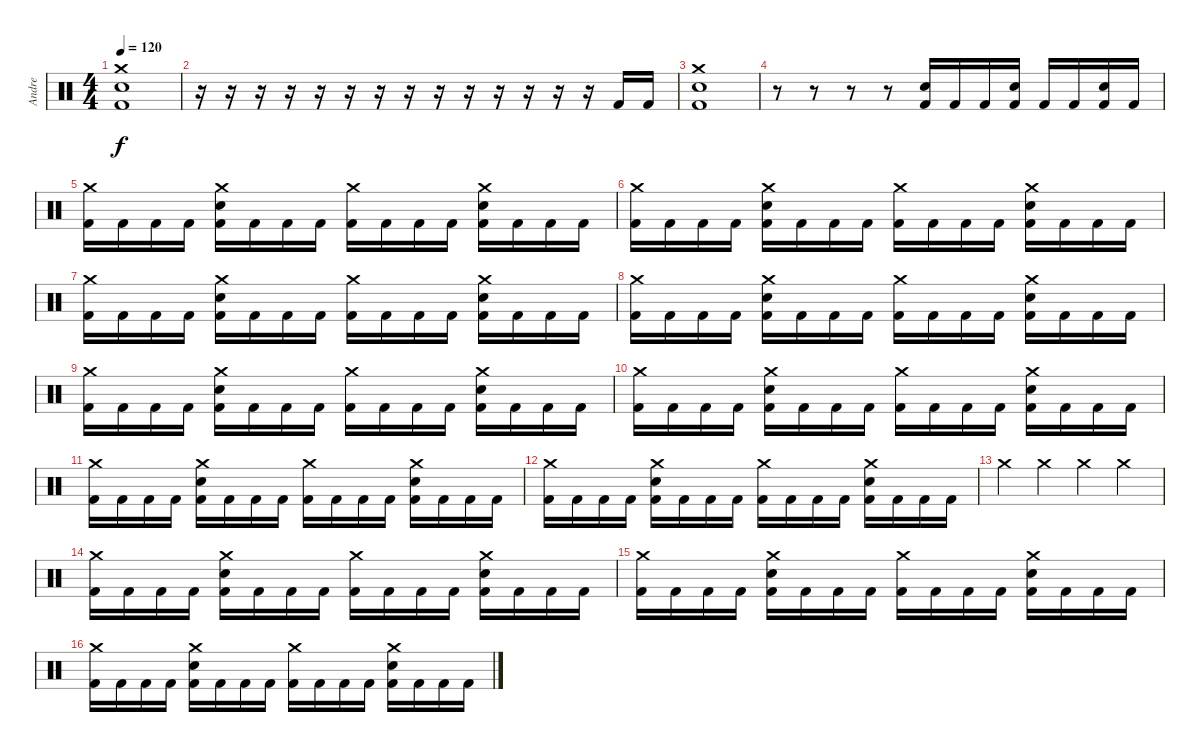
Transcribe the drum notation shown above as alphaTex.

\track ("Andre" "Andre") {instrument percussion}
\staff {score}
\articulation defaults
\ts (4 4)
\tempo 120
\clef neutral
\ks c
("Crash medium (hit)" "Snare (hit) 2" "Kick (hit) 2").1{dy f} |
r.16 r.16 r.16 r.16 r.16 r.16 r.16 r.16 r.16 r.16 r.16 r.16 r.16 r.16 "Kick (hit) 2".16 "Kick (hit) 2".16 |
("Crash medium (hit)" "Snare (hit) 2" "Kick (hit) 2").1 |
r.8 r.8 r.8 r.8 ("Snare (hit) 2" "Kick (hit) 2").16 "Kick (hit) 2".16 "Kick (hit) 2".16 ("Snare (hit) 2" "Kick (hit) 2").16 "Kick (hit) 2".16 "Kick (hit) 2".16 ("Snare (hit) 2" "Kick (hit) 2").16 "Kick (hit) 2".16 |
("Crash medium (hit)" "Kick (hit) 2").16 "Kick (hit) 2".16 "Kick (hit) 2".16 "Kick (hit) 2".16 ("Crash medium (hit)" "Snare (hit) 2" "Kick (hit) 2").16 "Kick (hit) 2".16 "Kick (hit) 2".16 "Kick (hit) 2".16 ("Crash medium (hit)" "Kick (hit) 2").16 "Kick (hit) 2".16 "Kick (hit) 2".16 "Kick (hit) 2".16 ("Crash medium (hit)" "Snare (hit) 2" "Kick (hit) 2").16 "Kick (hit) 2".16 "Kick (hit) 2".16 "Kick (hit) 2".16 |
("Crash medium (hit)" "Kick (hit) 2").16 "Kick (hit) 2".16 "Kick (hit) 2".16 "Kick (hit) 2".16 ("Crash medium (hit)" "Snare (hit) 2" "Kick (hit) 2").16 "Kick (hit) 2".16 "Kick (hit) 2".16 "Kick (hit) 2".16 ("Crash medium (hit)" "Kick (hit) 2").16 "Kick (hit) 2".16 "Kick (hit) 2".16 "Kick (hit) 2".16 ("Crash medium (hit)" "Snare (hit) 2" "Kick (hit) 2").16 "Kick (hit) 2".16 "Kick (hit) 2".16 "Kick (hit) 2".16 |
("Crash medium (hit)" "Kick (hit) 2").16 "Kick (hit) 2".16 "Kick (hit) 2".16 "Kick (hit) 2".16 ("Crash medium (hit)" "Snare (hit) 2" "Kick (hit) 2").16 "Kick (hit) 2".16 "Kick (hit) 2".16 "Kick (hit) 2".16 ("Crash medium (hit)" "Kick (hit) 2").16 "Kick (hit) 2".16 "Kick (hit) 2".16 "Kick (hit) 2".16 ("Crash medium (hit)" "Snare (hit) 2" "Kick (hit) 2").16 "Kick (hit) 2".16 "Kick (hit) 2".16 "Kick (hit) 2".16 |
("Crash medium (hit)" "Kick (hit) 2").16 "Kick (hit) 2".16 "Kick (hit) 2".16 "Kick (hit) 2".16 ("Crash medium (hit)" "Snare (hit) 2" "Kick (hit) 2").16 "Kick (hit) 2".16 "Kick (hit) 2".16 "Kick (hit) 2".16 ("Crash medium (hit)" "Kick (hit) 2").16 "Kick (hit) 2".16 "Kick (hit) 2".16 "Kick (hit) 2".16 ("Crash medium (hit)" "Snare (hit) 2" "Kick (hit) 2").16 "Kick (hit) 2".16 "Kick (hit) 2".16 "Kick (hit) 2".16 |
("Crash medium (hit)" "Kick (hit) 2").16 "Kick (hit) 2".16 "Kick (hit) 2".16 "Kick (hit) 2".16 ("Crash medium (hit)" "Snare (hit) 2" "Kick (hit) 2").16 "Kick (hit) 2".16 "Kick (hit) 2".16 "Kick (hit) 2".16 ("Crash medium (hit)" "Kick (hit) 2").16 "Kick (hit) 2".16 "Kick (hit) 2".16 "Kick (hit) 2".16 ("Crash medium (hit)" "Snare (hit) 2" "Kick (hit) 2").16 "Kick (hit) 2".16 "Kick (hit) 2".16 "Kick (hit) 2".16 |
("Crash medium (hit)" "Kick (hit) 2").16 "Kick (hit) 2".16 "Kick (hit) 2".16 "Kick (hit) 2".16 ("Crash medium (hit)" "Snare (hit) 2" "Kick (hit) 2").16 "Kick (hit) 2".16 "Kick (hit) 2".16 "Kick (hit) 2".16 ("Crash medium (hit)" "Kick (hit) 2").16 "Kick (hit) 2".16 "Kick (hit) 2".16 "Kick (hit) 2".16 ("Crash medium (hit)" "Snare (hit) 2" "Kick (hit) 2").16 "Kick (hit) 2".16 "Kick (hit) 2".16 "Kick (hit) 2".16 |
("Crash medium (hit)" "Kick (hit) 2").16 "Kick (hit) 2".16 "Kick (hit) 2".16 "Kick (hit) 2".16 ("Crash medium (hit)" "Snare (hit) 2" "Kick (hit) 2").16 "Kick (hit) 2".16 "Kick (hit) 2".16 "Kick (hit) 2".16 ("Crash medium (hit)" "Kick (hit) 2").16 "Kick (hit) 2".16 "Kick (hit) 2".16 "Kick (hit) 2".16 ("Crash medium (hit)" "Snare (hit) 2" "Kick (hit) 2").16 "Kick (hit) 2".16 "Kick (hit) 2".16 "Kick (hit) 2".16 |
("Crash medium (hit)" "Kick (hit) 2").16 "Kick (hit) 2".16 "Kick (hit) 2".16 "Kick (hit) 2".16 ("Crash medium (hit)" "Snare (hit) 2" "Kick (hit) 2").16 "Kick (hit) 2".16 "Kick (hit) 2".16 "Kick (hit) 2".16 ("Crash medium (hit)" "Kick (hit) 2").16 "Kick (hit) 2".16 "Kick (hit) 2".16 "Kick (hit) 2".16 ("Crash medium (hit)" "Snare (hit) 2" "Kick (hit) 2").16 "Kick (hit) 2".16 "Kick (hit) 2".16 "Kick (hit) 2".16 |
"Crash medium (hit)".4 "Crash medium (hit)".4 "Crash medium (hit)".4 "Crash medium (hit)".4 |
("Crash medium (hit)" "Kick (hit) 2").16 "Kick (hit) 2".16 "Kick (hit) 2".16 "Kick (hit) 2".16 ("Crash medium (hit)" "Snare (hit) 2" "Kick (hit) 2").16 "Kick (hit) 2".16 "Kick (hit) 2".16 "Kick (hit) 2".16 ("Crash medium (hit)" "Kick (hit) 2").16 "Kick (hit) 2".16 "Kick (hit) 2".16 "Kick (hit) 2".16 ("Crash medium (hit)" "Snare (hit) 2" "Kick (hit) 2").16 "Kick (hit) 2".16 "Kick (hit) 2".16 "Kick (hit) 2".16 |
("Crash medium (hit)" "Kick (hit) 2").16 "Kick (hit) 2".16 "Kick (hit) 2".16 "Kick (hit) 2".16 ("Crash medium (hit)" "Snare (hit) 2" "Kick (hit) 2").16 "Kick (hit) 2".16 "Kick (hit) 2".16 "Kick (hit) 2".16 ("Crash medium (hit)" "Kick (hit) 2").16 "Kick (hit) 2".16 "Kick (hit) 2".16 "Kick (hit) 2".16 ("Crash medium (hit)" "Snare (hit) 2" "Kick (hit) 2").16 "Kick (hit) 2".16 "Kick (hit) 2".16 "Kick (hit) 2".16 |
("Crash medium (hit)" "Kick (hit) 2").16 "Kick (hit) 2".16 "Kick (hit) 2".16 "Kick (hit) 2".16 ("Crash medium (hit)" "Snare (hit) 2" "Kick (hit) 2").16 "Kick (hit) 2".16 "Kick (hit) 2".16 "Kick (hit) 2".16 ("Crash medium (hit)" "Kick (hit) 2").16 "Kick (hit) 2".16 "Kick (hit) 2".16 "Kick (hit) 2".16 ("Crash medium (hit)" "Snare (hit) 2" "Kick (hit) 2").16 "Kick (hit) 2".16 "Kick (hit) 2".16 "Kick (hit) 2".16
